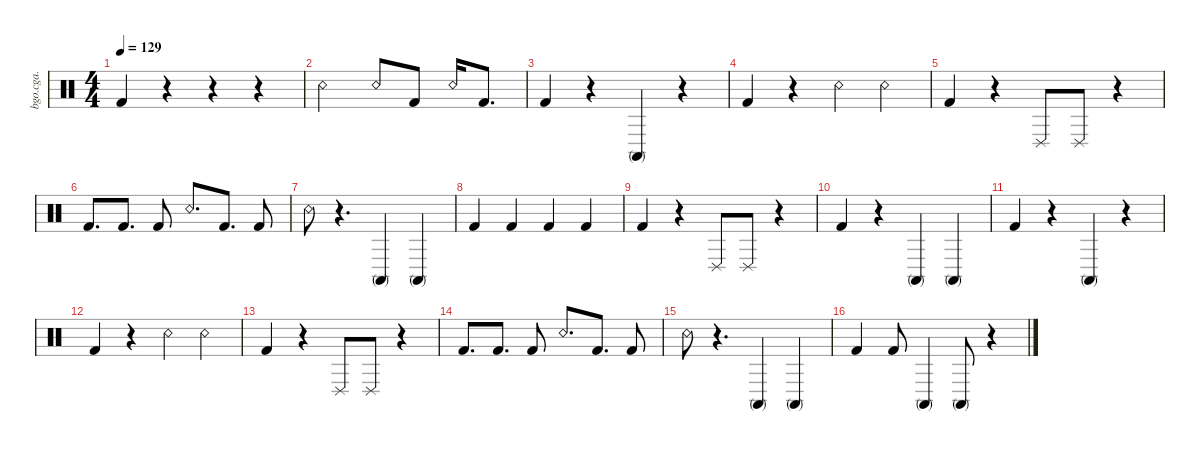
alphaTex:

\defaultSystemsLayout 4
\hideDynamics
\bracketExtendMode nobrackets
\otherSystemsTrackNameOrientation horizontal
\track ("Alex's percussion" "bgo.cga.") {instrument percussion}
\staff {score}
\articulation defaults
\ts (4 4)
\tempo 129
\clef neutral
\ks c "Kick (hit) 2".4{dy mf}
r.4 r.4 r.4 |
"Snare (rim shot)".2 "Snare (rim shot)".8 "Kick (hit) 2".8 "Snare (rim shot)".16 "Kick (hit) 2".8{d} |
"Kick (hit) 2".4 r.4 "Conga high (mute)".4 r.4 |
"Kick (hit) 2".4 r.4 "Snare (rim shot)".4 "Snare (rim shot)".4 |
"Kick (hit) 2".4 r.4 "Conga low (slap)".8 "Conga low (slap)".8 r.4 |
"Kick (hit) 2".8{d} "Kick (hit) 2".8{d} "Kick (hit) 2".8 "Snare (rim shot)".8{d} "Kick (hit) 2".8{d} "Kick (hit) 2".8 |
"Snare (rim shot)".8 r.4{d} "Conga high (mute)".4 "Conga high (mute)".4 |
"Kick (hit) 2".4 "Kick (hit) 2".4 "Kick (hit) 2".4 "Kick (hit) 2".4 |
"Kick (hit) 2".4 r.4 "Conga low (slap)".8 "Conga low (slap)".8 r.4 |
"Kick (hit) 2".4 r.4 "Conga high (mute)".4 "Conga high (mute)".4 |
"Kick (hit) 2".4 r.4 "Conga high (mute)".4 r.4 |
"Kick (hit) 2".4 r.4 "Snare (rim shot)".4 "Snare (rim shot)".4 |
"Kick (hit) 2".4 r.4 "Conga low (slap)".8 "Conga low (slap)".8 r.4 |
"Kick (hit) 2".8{d} "Kick (hit) 2".8{d} "Kick (hit) 2".8 "Snare (rim shot)".8{d} "Kick (hit) 2".8{d} "Kick (hit) 2".8 |
"Snare (rim shot)".8 r.4{d} "Conga high (mute)".4 "Conga high (mute)".4 |
"Kick (hit) 2".4 "Kick (hit) 2".8 "Conga high (mute)".4{dy f} "Conga high (mute)".8 r.4
